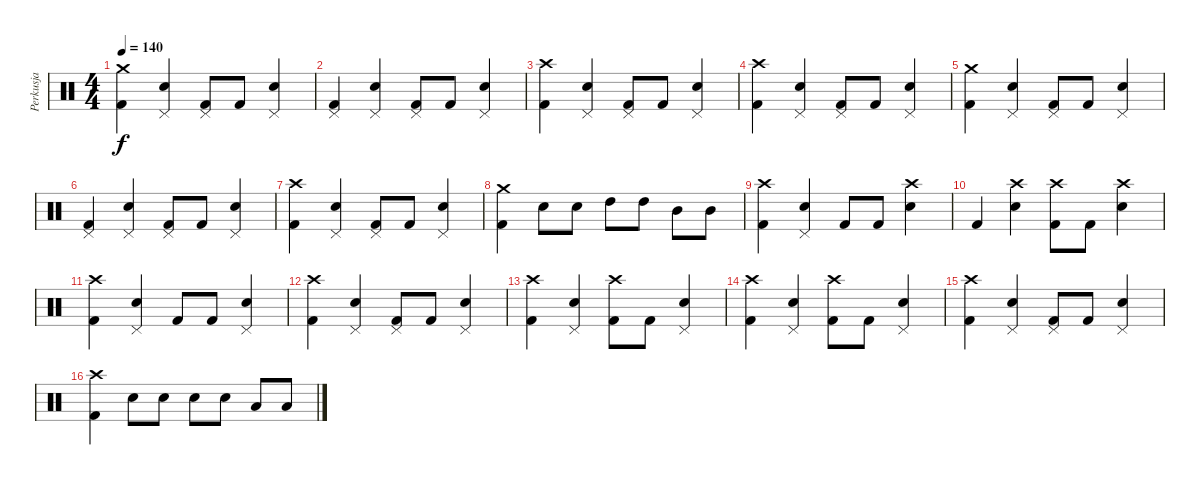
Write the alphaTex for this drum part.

\track ("Perkusja" "Perkusja") {instrument percussion}
\staff {score}
\articulation defaults
\ts (4 4)
\tempo 140
\clef neutral
\ks c
("Crash medium (hit)" "Kick (hit) 2").4{dy f} ("Pedal Hi-Hat (hit)" "Snare (hit) 2").4 ("Pedal Hi-Hat (hit)" "Kick (hit) 2").8 "Kick (hit) 2".8 ("Pedal Hi-Hat (hit)" "Snare (hit) 2").4 |
("Pedal Hi-Hat (hit)" "Kick (hit) 2").4 ("Pedal Hi-Hat (hit)" "Snare (hit) 2").4 ("Pedal Hi-Hat (hit)" "Kick (hit) 2").8 "Kick (hit) 2".8 ("Pedal Hi-Hat (hit)" "Snare (hit) 2").4 |
("Crash high (hit)" "Kick (hit) 2").4 ("Pedal Hi-Hat (hit)" "Snare (hit) 2").4 ("Pedal Hi-Hat (hit)" "Kick (hit) 2").8 "Kick (hit) 2".8 ("Pedal Hi-Hat (hit)" "Snare (hit) 2").4 |
("Crash high (hit)" "Kick (hit) 2").4 ("Pedal Hi-Hat (hit)" "Snare (hit) 2").4 ("Pedal Hi-Hat (hit)" "Kick (hit) 2").8 "Kick (hit) 2".8 ("Pedal Hi-Hat (hit)" "Snare (hit) 2").4 |
("Crash medium (hit)" "Kick (hit) 2").4 ("Pedal Hi-Hat (hit)" "Snare (hit) 2").4 ("Pedal Hi-Hat (hit)" "Kick (hit) 2").8 "Kick (hit) 2".8 ("Pedal Hi-Hat (hit)" "Snare (hit) 2").4 |
("Pedal Hi-Hat (hit)" "Kick (hit) 2").4 ("Pedal Hi-Hat (hit)" "Snare (hit) 2").4 ("Pedal Hi-Hat (hit)" "Kick (hit) 2").8 "Kick (hit) 2".8 ("Pedal Hi-Hat (hit)" "Snare (hit) 2").4 |
("Crash high (hit)" "Kick (hit) 2").4 ("Pedal Hi-Hat (hit)" "Snare (hit) 2").4 ("Pedal Hi-Hat (hit)" "Kick (hit) 2").8 "Kick (hit) 2".8 ("Pedal Hi-Hat (hit)" "Snare (hit) 2").4 |
("Crash medium (hit)" "Kick (hit) 2").4 "Snare (hit) 2".8 "Snare (hit) 2".8 "High Tom (hit)".8 "High Tom (hit)".8 "Mid Tom (hit)".8 "Mid Tom (hit)".8 |
("Crash high (hit)" "Kick (hit) 2").4 ("Pedal Hi-Hat (hit)" "Snare (hit) 2").4 "Kick (hit) 2".8 "Kick (hit) 2".8 ("Crash high (hit)" "Snare (hit) 2").4 |
"Kick (hit) 2".4 ("Crash high (hit)" "Snare (hit) 2").4 ("Crash high (hit)" "Kick (hit) 2").8 "Kick (hit) 2".8 ("Crash high (hit)" "Snare (hit) 2").4 |
("Crash high (hit)" "Kick (hit) 2").4 ("Pedal Hi-Hat (hit)" "Snare (hit) 2").4 "Kick (hit) 2".8 "Kick (hit) 2".8 ("Pedal Hi-Hat (hit)" "Snare (hit) 2").4 |
("Crash high (hit)" "Kick (hit) 2").4 ("Pedal Hi-Hat (hit)" "Snare (hit) 2").4 ("Pedal Hi-Hat (hit)" "Kick (hit) 2").8 "Kick (hit) 2".8 ("Pedal Hi-Hat (hit)" "Snare (hit) 2").4 |
("Crash high (hit)" "Kick (hit) 2").4 ("Pedal Hi-Hat (hit)" "Snare (hit) 2").4 ("Crash high (hit)" "Kick (hit) 2").8 "Kick (hit) 2".8 ("Pedal Hi-Hat (hit)" "Snare (hit) 2").4 |
("Crash high (hit)" "Kick (hit) 2").4 ("Pedal Hi-Hat (hit)" "Snare (hit) 2").4 ("Crash high (hit)" "Kick (hit) 2").8 "Kick (hit) 2".8 ("Pedal Hi-Hat (hit)" "Snare (hit) 2").4 |
("Crash high (hit)" "Kick (hit) 2").4 ("Pedal Hi-Hat (hit)" "Snare (hit) 2").4 ("Pedal Hi-Hat (hit)" "Kick (hit) 2").8 "Kick (hit) 2".8 ("Pedal Hi-Hat (hit)" "Snare (hit) 2").4 |
("Crash high (hit)" "Kick (hit) 2").4 "Snare (hit) 2".8 "Snare (hit) 2".8 "Snare (hit) 2".8 "Snare (hit) 2".8 "Low Tom (hit)".8 "Low Tom (hit)".8
